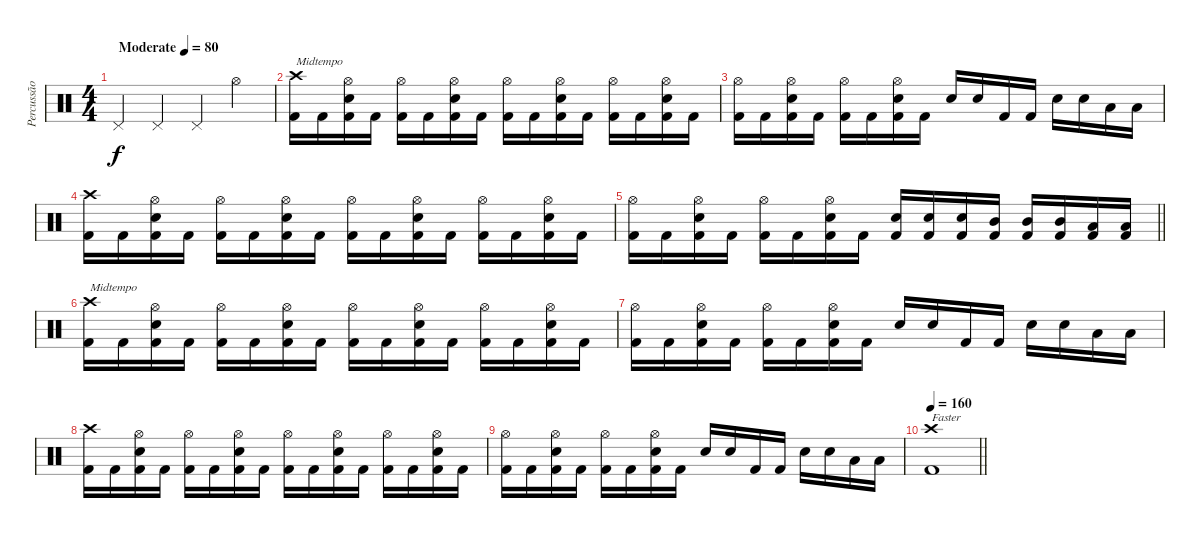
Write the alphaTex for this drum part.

\track ("Percussão" "Percussão") {instrument percussion}
\staff {score}
\articulation defaults
\ts (4 4)
\tempo (80 "Moderate")
\clef neutral
\ks c "Pedal Hi-Hat (hit)".4{dy f} "Pedal Hi-Hat (hit)".4 "Pedal Hi-Hat (hit)".4 "Hi-Hat (open)".4
|
("Crash high (hit)" "Kick (hit) 2").16{txt "Midtempo"} "Kick (hit) 2".16 ("Hi-Hat (open)" "Snare (hit) 2" "Kick (hit) 2").16 "Kick (hit) 2".16 ("Hi-Hat (open)" "Kick (hit) 2").16 "Kick (hit) 2".16 ("Hi-Hat (open)" "Snare (hit) 2" "Kick (hit) 2").16 "Kick (hit) 2".16 ("Hi-Hat (open)" "Kick (hit) 2").16 "Kick (hit) 2".16 ("Hi-Hat (open)" "Snare (hit) 2" "Kick (hit) 2").16 "Kick (hit) 2".16 ("Hi-Hat (open)" "Kick (hit) 2").16 "Kick (hit) 2".16 ("Hi-Hat (open)" "Snare (hit) 2" "Kick (hit) 2").16 "Kick (hit) 2".16 |
("Hi-Hat (open)" "Kick (hit) 2").16 "Kick (hit) 2".16 ("Hi-Hat (open)" "Snare (hit) 2" "Kick (hit) 2").16 "Kick (hit) 2".16 ("Hi-Hat (open)" "Kick (hit) 2").16 "Kick (hit) 2".16 ("Hi-Hat (open)" "Snare (hit) 2" "Kick (hit) 2").16 "Kick (hit) 2".16 "Snare (hit) 2".16 "Snare (hit) 2".16 "Kick (hit) 2".16 "Kick (hit) 2".16 "Snare (hit) 2".16 "Snare (hit) 2".16 "Low Tom (hit)".16 "Low Tom (hit)".16 |
("Crash high (hit)" "Kick (hit) 2").16 "Kick (hit) 2".16 ("Hi-Hat (open)" "Snare (hit) 2" "Kick (hit) 2").16 "Kick (hit) 2".16 ("Hi-Hat (open)" "Kick (hit) 2").16 "Kick (hit) 2".16 ("Hi-Hat (open)" "Snare (hit) 2" "Kick (hit) 2").16 "Kick (hit) 2".16 ("Hi-Hat (open)" "Kick (hit) 2").16 "Kick (hit) 2".16 ("Hi-Hat (open)" "Snare (hit) 2" "Kick (hit) 2").16 "Kick (hit) 2".16 ("Hi-Hat (open)" "Kick (hit) 2").16 "Kick (hit) 2".16 ("Hi-Hat (open)" "Snare (hit) 2" "Kick (hit) 2").16 "Kick (hit) 2".16 |
\barLineRight lightlight
("Hi-Hat (open)" "Kick (hit) 2").16 "Kick (hit) 2".16 ("Hi-Hat (open)" "Snare (hit) 2" "Kick (hit) 2").16 "Kick (hit) 2".16 ("Hi-Hat (open)" "Kick (hit) 2").16 "Kick (hit) 2".16 ("Hi-Hat (open)" "Snare (hit) 2" "Kick (hit) 2").16 "Kick (hit) 2".16 ("Snare (hit) 2" "Kick (hit) 2").16 ("Snare (hit) 2" "Kick (hit) 2").16 ("Snare (hit) 2" "Kick (hit) 2").16 ("Mid Tom (hit)" "Kick (hit) 2").16 ("Mid Tom (hit)" "Kick (hit) 2").16 ("Mid Tom (hit)" "Kick (hit) 2").16 ("Low Tom (hit)" "Kick (hit) 2").16 ("Low Tom (hit)" "Kick (hit) 2").16 |
("Crash high (hit)" "Kick (hit) 2").16{txt "Midtempo"} "Kick (hit) 2".16 ("Hi-Hat (open)" "Snare (hit) 2" "Kick (hit) 2").16 "Kick (hit) 2".16 ("Hi-Hat (open)" "Kick (hit) 2").16 "Kick (hit) 2".16 ("Hi-Hat (open)" "Snare (hit) 2" "Kick (hit) 2").16 "Kick (hit) 2".16 ("Hi-Hat (open)" "Kick (hit) 2").16 "Kick (hit) 2".16 ("Hi-Hat (open)" "Snare (hit) 2" "Kick (hit) 2").16 "Kick (hit) 2".16 ("Hi-Hat (open)" "Kick (hit) 2").16 "Kick (hit) 2".16 ("Hi-Hat (open)" "Snare (hit) 2" "Kick (hit) 2").16 "Kick (hit) 2".16 |
("Hi-Hat (open)" "Kick (hit) 2").16 "Kick (hit) 2".16 ("Hi-Hat (open)" "Snare (hit) 2" "Kick (hit) 2").16 "Kick (hit) 2".16 ("Hi-Hat (open)" "Kick (hit) 2").16 "Kick (hit) 2".16 ("Hi-Hat (open)" "Snare (hit) 2" "Kick (hit) 2").16 "Kick (hit) 2".16 "Snare (hit) 2".16 "Snare (hit) 2".16 "Kick (hit) 2".16 "Kick (hit) 2".16 "Snare (hit) 2".16 "Snare (hit) 2".16 "Low Tom (hit)".16 "Low Tom (hit)".16 |
("Crash high (hit)" "Kick (hit) 2").16 "Kick (hit) 2".16 ("Hi-Hat (open)" "Snare (hit) 2" "Kick (hit) 2").16 "Kick (hit) 2".16 ("Hi-Hat (open)" "Kick (hit) 2").16 "Kick (hit) 2".16 ("Hi-Hat (open)" "Snare (hit) 2" "Kick (hit) 2").16 "Kick (hit) 2".16 ("Hi-Hat (open)" "Kick (hit) 2").16 "Kick (hit) 2".16 ("Hi-Hat (open)" "Snare (hit) 2" "Kick (hit) 2").16 "Kick (hit) 2".16 ("Hi-Hat (open)" "Kick (hit) 2").16 "Kick (hit) 2".16 ("Hi-Hat (open)" "Snare (hit) 2" "Kick (hit) 2").16 "Kick (hit) 2".16 |
("Hi-Hat (open)" "Kick (hit) 2").16 "Kick (hit) 2".16 ("Hi-Hat (open)" "Snare (hit) 2" "Kick (hit) 2").16 "Kick (hit) 2".16 ("Hi-Hat (open)" "Kick (hit) 2").16 "Kick (hit) 2".16 ("Hi-Hat (open)" "Snare (hit) 2" "Kick (hit) 2").16 "Kick (hit) 2".16 "Snare (hit) 2".16 "Snare (hit) 2".16 "Kick (hit) 2".16 "Kick (hit) 2".16 "Snare (hit) 2".16 "Snare (hit) 2".16 "Low Tom (hit)".16 "Low Tom (hit)".16 |
\tempo 160
\barLineRight lightlight
("Crash high (hit)" "Kick (hit) 2").1{txt "Faster"}
